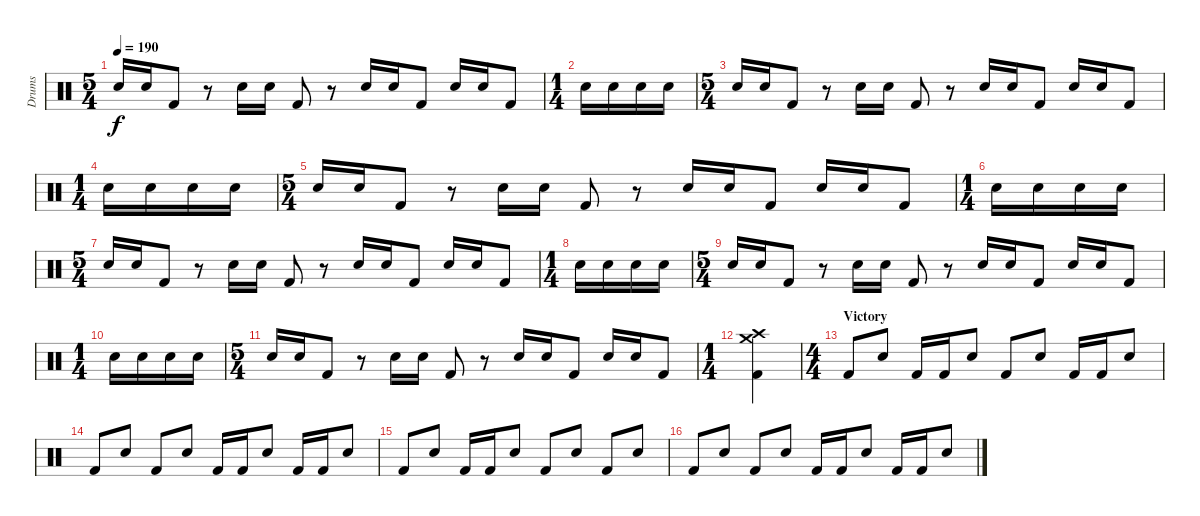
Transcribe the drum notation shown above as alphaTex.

\track ("Drums" "Drums") {instrument percussion}
\staff {score}
\articulation defaults
\ts (5 4)
\tempo 190
\clef neutral
\ks c "Snare (hit) 2".16{dy f} "Snare (hit) 2".16 "Kick (hit) 2".8
r.8 "Snare (hit) 2".16 "Snare (hit) 2".16 "Kick (hit) 2".8 r.8 "Snare (hit) 2".16 "Snare (hit) 2".16 "Kick (hit) 2".8 "Snare (hit) 2".16 "Snare (hit) 2".16 "Kick (hit) 2".8 |
\ts (1 4)
"Snare (hit) 2".16 "Snare (hit) 2".16 "Snare (hit) 2".16 "Snare (hit) 2".16 |
\ts (5 4)
"Snare (hit) 2".16 "Snare (hit) 2".16 "Kick (hit) 2".8 r.8 "Snare (hit) 2".16 "Snare (hit) 2".16 "Kick (hit) 2".8 r.8 "Snare (hit) 2".16 "Snare (hit) 2".16 "Kick (hit) 2".8 "Snare (hit) 2".16 "Snare (hit) 2".16 "Kick (hit) 2".8 |
\ts (1 4)
"Snare (hit) 2".16 "Snare (hit) 2".16 "Snare (hit) 2".16 "Snare (hit) 2".16 |
\ts (5 4)
"Snare (hit) 2".16 "Snare (hit) 2".16 "Kick (hit) 2".8 r.8 "Snare (hit) 2".16 "Snare (hit) 2".16 "Kick (hit) 2".8 r.8 "Snare (hit) 2".16 "Snare (hit) 2".16 "Kick (hit) 2".8 "Snare (hit) 2".16 "Snare (hit) 2".16 "Kick (hit) 2".8 |
\ts (1 4)
"Snare (hit) 2".16 "Snare (hit) 2".16 "Snare (hit) 2".16 "Snare (hit) 2".16 |
\ts (5 4)
"Snare (hit) 2".16 "Snare (hit) 2".16 "Kick (hit) 2".8 r.8 "Snare (hit) 2".16 "Snare (hit) 2".16 "Kick (hit) 2".8 r.8 "Snare (hit) 2".16 "Snare (hit) 2".16 "Kick (hit) 2".8 "Snare (hit) 2".16 "Snare (hit) 2".16 "Kick (hit) 2".8 |
\ts (1 4)
"Snare (hit) 2".16 "Snare (hit) 2".16 "Snare (hit) 2".16 "Snare (hit) 2".16 |
\ts (5 4)
"Snare (hit) 2".16 "Snare (hit) 2".16 "Kick (hit) 2".8 r.8 "Snare (hit) 2".16 "Snare (hit) 2".16 "Kick (hit) 2".8 r.8 "Snare (hit) 2".16 "Snare (hit) 2".16 "Kick (hit) 2".8 "Snare (hit) 2".16 "Snare (hit) 2".16 "Kick (hit) 2".8 |
\ts (1 4)
"Snare (hit) 2".16 "Snare (hit) 2".16 "Snare (hit) 2".16 "Snare (hit) 2".16 |
\ts (5 4)
"Snare (hit) 2".16 "Snare (hit) 2".16 "Kick (hit) 2".8 r.8 "Snare (hit) 2".16 "Snare (hit) 2".16 "Kick (hit) 2".8 r.8 "Snare (hit) 2".16 "Snare (hit) 2".16 "Kick (hit) 2".8 "Snare (hit) 2".16 "Snare (hit) 2".16 "Kick (hit) 2".8 |
\ts (1 4)
("Crash medium (hit)" "Crash high (hit)" "Kick (hit) 2").4 |
\ts (4 4)
\section ("" "Victory")
"Kick (hit) 2".8 "Snare (hit) 2".8 "Kick (hit) 2".16 "Kick (hit) 2".16 "Snare (hit) 2".8 "Kick (hit) 2".8 "Snare (hit) 2".8 "Kick (hit) 2".16 "Kick (hit) 2".16 "Snare (hit) 2".8 |
"Kick (hit) 2".8 "Snare (hit) 2".8 "Kick (hit) 2".8 "Snare (hit) 2".8 "Kick (hit) 2".16 "Kick (hit) 2".16 "Snare (hit) 2".8 "Kick (hit) 2".16 "Kick (hit) 2".16 "Snare (hit) 2".8 |
"Kick (hit) 2".8 "Snare (hit) 2".8 "Kick (hit) 2".16 "Kick (hit) 2".16 "Snare (hit) 2".8 "Kick (hit) 2".8 "Snare (hit) 2".8 "Kick (hit) 2".8 "Snare (hit) 2".8 |
"Kick (hit) 2".8 "Snare (hit) 2".8 "Kick (hit) 2".8 "Snare (hit) 2".8 "Kick (hit) 2".16 "Kick (hit) 2".16 "Snare (hit) 2".8 "Kick (hit) 2".16 "Kick (hit) 2".16 "Snare (hit) 2".8
